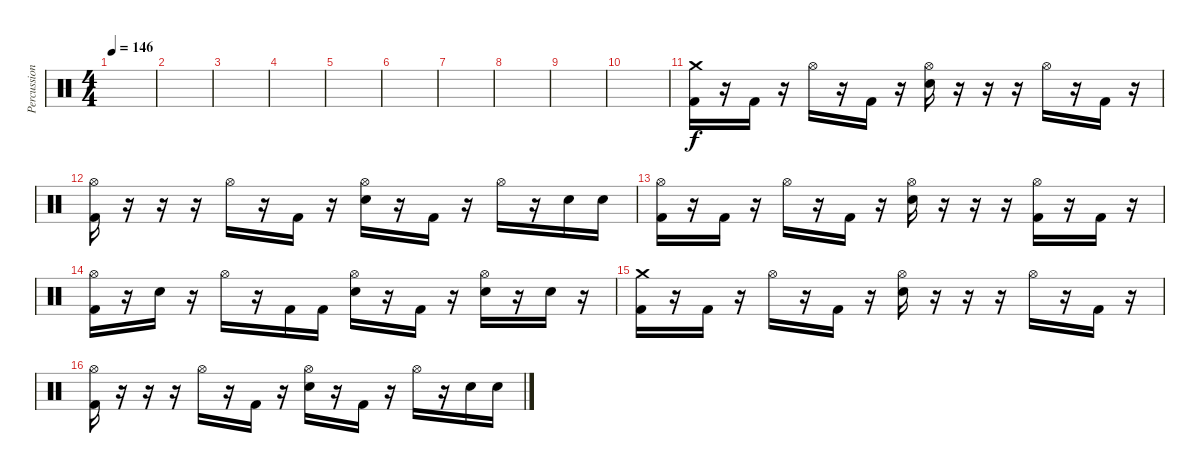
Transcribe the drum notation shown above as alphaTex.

\track ("Percussion" "Percussion") {instrument percussion}
\staff {score}
\articulation defaults
\ts (4 4)
\tempo 146
\clef neutral
\ks c
|
|
|
|
|
|
|
|
|
|
("Crash medium (hit)" "Kick (hit) 2").16 r.16 "Kick (hit) 2".16 r.16 "Hi-Hat (open)".16 r.16 "Kick (hit) 2".16 r.16 ("Hi-Hat (open)" "Snare (hit) 2").16 r.16 r.16 r.16 "Hi-Hat (open)".16 r.16 "Kick (hit) 2".16 r.16 |
("Hi-Hat (open)" "Kick (hit) 2").16 r.16 r.16 r.16 "Hi-Hat (open)".16 r.16 "Kick (hit) 2".16 r.16 ("Hi-Hat (open)" "Snare (hit) 2").16 r.16 "Kick (hit) 2".16 r.16 "Hi-Hat (open)".16 r.16 "Snare (hit) 2".16 "Snare (hit) 2".16 |
("Hi-Hat (open)" "Kick (hit) 2").16 r.16 "Kick (hit) 2".16 r.16 "Hi-Hat (open)".16 r.16 "Kick (hit) 2".16 r.16 ("Hi-Hat (open)" "Snare (hit) 2").16 r.16 r.16 r.16 ("Hi-Hat (open)" "Kick (hit) 2").16 r.16 "Kick (hit) 2".16 r.16 |
("Hi-Hat (open)" "Kick (hit) 2").16 r.16 "Snare (hit) 2".16 r.16 "Hi-Hat (open)".16 r.16 "Kick (hit) 2".16 "Kick (hit) 2".16 ("Hi-Hat (open)" "Snare (hit) 2").16 r.16 "Kick (hit) 2".16 r.16 ("Hi-Hat (open)" "Snare (hit) 2").16 r.16 "Snare (hit) 2".16 r.16 |
("Crash medium (hit)" "Kick (hit) 2").16 r.16 "Kick (hit) 2".16 r.16 "Hi-Hat (open)".16 r.16 "Kick (hit) 2".16 r.16 ("Hi-Hat (open)" "Snare (hit) 2").16 r.16 r.16 r.16 "Hi-Hat (open)".16 r.16 "Kick (hit) 2".16 r.16 |
("Hi-Hat (open)" "Kick (hit) 2").16 r.16 r.16 r.16 "Hi-Hat (open)".16 r.16 "Kick (hit) 2".16 r.16 ("Hi-Hat (open)" "Snare (hit) 2").16 r.16 "Kick (hit) 2".16 r.16 "Hi-Hat (open)".16 r.16 "Snare (hit) 2".16 "Snare (hit) 2".16
